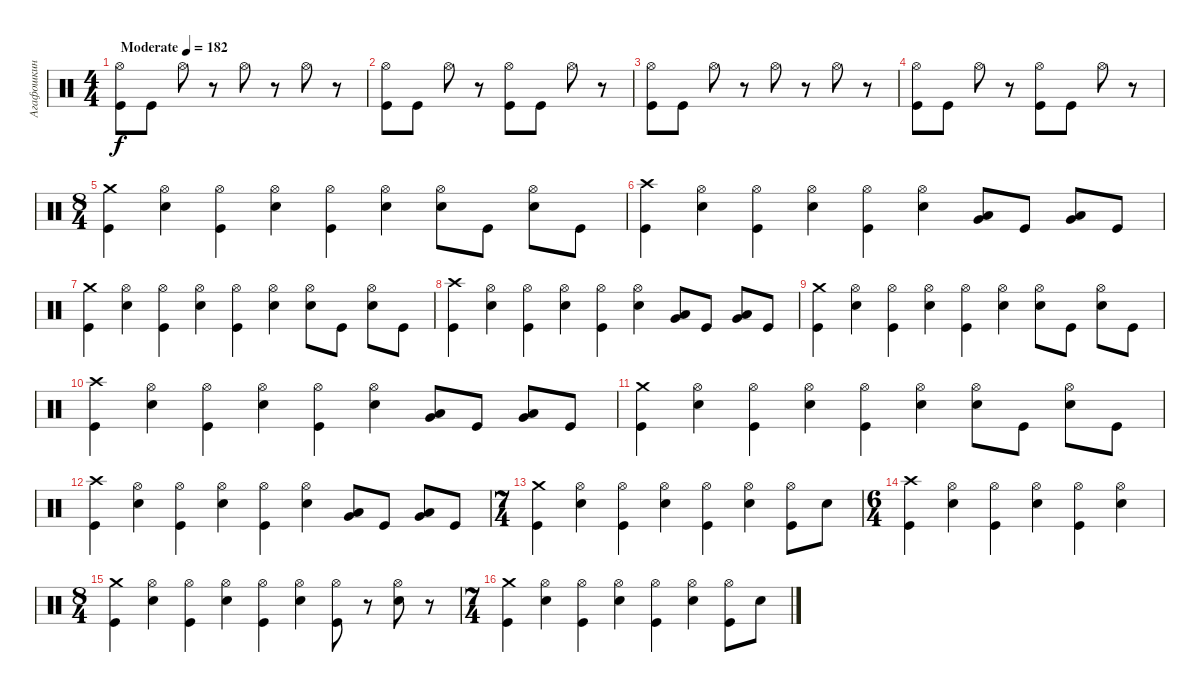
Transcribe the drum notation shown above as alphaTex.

\track ("Агафошкин" "Агафошкин") {instrument percussion}
\staff {score}
\articulation defaults
\ts (4 4)
\tempo (182 "Moderate")
\clef neutral
\ks c
("Hi-Hat (open)" "Kick (hit)").8{dy f} "Kick (hit)".8 "Hi-Hat (open)".8 r.8 "Hi-Hat (open)".8 r.8 "Hi-Hat (open)".8 r.8 |
("Hi-Hat (open)" "Kick (hit)").8 "Kick (hit)".8 "Hi-Hat (open)".8 r.8 ("Hi-Hat (open)" "Kick (hit)").8 "Kick (hit)".8 "Hi-Hat (open)".8 r.8 |
("Hi-Hat (open)" "Kick (hit)").8 "Kick (hit)".8 "Hi-Hat (open)".8 r.8 "Hi-Hat (open)".8 r.8 "Hi-Hat (open)".8 r.8 |
("Hi-Hat (open)" "Kick (hit)").8 "Kick (hit)".8 "Hi-Hat (open)".8 r.8 ("Hi-Hat (open)" "Kick (hit)").8 "Kick (hit)".8 "Hi-Hat (open)".8 r.8 |
\ts (8 4)
("Crash medium (hit)" "Kick (hit)").4 ("Hi-Hat (open)" "Snare (hit) 2").4 ("Hi-Hat (open)" "Kick (hit)").4 ("Hi-Hat (open)" "Snare (hit) 2").4 ("Hi-Hat (open)" "Kick (hit)").4 ("Hi-Hat (open)" "Snare (hit) 2").4 ("Hi-Hat (open)" "Snare (hit) 2").8 "Kick (hit)".8 ("Hi-Hat (open)" "Snare (hit) 2").8 "Kick (hit)".8 |
("Crash high (hit)" "Kick (hit)").4 ("Hi-Hat (open)" "Snare (hit) 2").4 ("Hi-Hat (open)" "Kick (hit)").4 ("Hi-Hat (open)" "Snare (hit) 2").4 ("Hi-Hat (open)" "Kick (hit)").4 ("Hi-Hat (open)" "Snare (hit) 2").4 ("Very Low Tom (hit)" "Low Tom (hit)").8 "Kick (hit)".8 ("Very Low Tom (hit)" "Low Tom (hit)").8 "Kick (hit)".8 |
("Crash medium (hit)" "Kick (hit)").4 ("Hi-Hat (open)" "Snare (hit) 2").4 ("Hi-Hat (open)" "Kick (hit)").4 ("Hi-Hat (open)" "Snare (hit) 2").4 ("Hi-Hat (open)" "Kick (hit)").4 ("Hi-Hat (open)" "Snare (hit) 2").4 ("Hi-Hat (open)" "Snare (hit) 2").8 "Kick (hit)".8 ("Hi-Hat (open)" "Snare (hit) 2").8 "Kick (hit)".8 |
("Crash high (hit)" "Kick (hit)").4 ("Hi-Hat (open)" "Snare (hit) 2").4 ("Hi-Hat (open)" "Kick (hit)").4 ("Hi-Hat (open)" "Snare (hit) 2").4 ("Hi-Hat (open)" "Kick (hit)").4 ("Hi-Hat (open)" "Snare (hit) 2").4 ("Very Low Tom (hit)" "Low Tom (hit)").8 "Kick (hit)".8 ("Very Low Tom (hit)" "Low Tom (hit)").8 "Kick (hit)".8 |
("Crash medium (hit)" "Kick (hit)").4 ("Hi-Hat (open)" "Snare (hit) 2").4 ("Hi-Hat (open)" "Kick (hit)").4 ("Hi-Hat (open)" "Snare (hit) 2").4 ("Hi-Hat (open)" "Kick (hit)").4 ("Hi-Hat (open)" "Snare (hit) 2").4 ("Hi-Hat (open)" "Snare (hit) 2").8 "Kick (hit)".8 ("Hi-Hat (open)" "Snare (hit) 2").8 "Kick (hit)".8 |
("Crash high (hit)" "Kick (hit)").4 ("Hi-Hat (open)" "Snare (hit) 2").4 ("Hi-Hat (open)" "Kick (hit)").4 ("Hi-Hat (open)" "Snare (hit) 2").4 ("Hi-Hat (open)" "Kick (hit)").4 ("Hi-Hat (open)" "Snare (hit) 2").4 ("Very Low Tom (hit)" "Low Tom (hit)").8 "Kick (hit)".8 ("Very Low Tom (hit)" "Low Tom (hit)").8 "Kick (hit)".8 |
("Crash medium (hit)" "Kick (hit)").4 ("Hi-Hat (open)" "Snare (hit) 2").4 ("Hi-Hat (open)" "Kick (hit)").4 ("Hi-Hat (open)" "Snare (hit) 2").4 ("Hi-Hat (open)" "Kick (hit)").4 ("Hi-Hat (open)" "Snare (hit) 2").4 ("Hi-Hat (open)" "Snare (hit) 2").8 "Kick (hit)".8 ("Hi-Hat (open)" "Snare (hit) 2").8 "Kick (hit)".8 |
("Crash high (hit)" "Kick (hit)").4 ("Hi-Hat (open)" "Snare (hit) 2").4 ("Hi-Hat (open)" "Kick (hit)").4 ("Hi-Hat (open)" "Snare (hit) 2").4 ("Hi-Hat (open)" "Kick (hit)").4 ("Hi-Hat (open)" "Snare (hit) 2").4 ("Very Low Tom (hit)" "Low Tom (hit)").8 "Kick (hit)".8 ("Very Low Tom (hit)" "Low Tom (hit)").8 "Kick (hit)".8 |
\ts (7 4)
("Crash medium (hit)" "Kick (hit)").4 ("Hi-Hat (open)" "Snare (hit) 2").4 ("Hi-Hat (open)" "Kick (hit)").4 ("Hi-Hat (open)" "Snare (hit) 2").4 ("Hi-Hat (open)" "Kick (hit)").4 ("Hi-Hat (open)" "Snare (hit) 2").4 ("Hi-Hat (open)" "Kick (hit)").8 "Snare (hit) 2".8 |
\ts (6 4)
("Crash high (hit)" "Kick (hit)").4 ("Hi-Hat (open)" "Snare (hit) 2").4 ("Hi-Hat (open)" "Kick (hit)").4 ("Hi-Hat (open)" "Snare (hit) 2").4 ("Hi-Hat (open)" "Kick (hit)").4 ("Hi-Hat (open)" "Snare (hit) 2").4 |
\ts (8 4)
("Crash medium (hit)" "Kick (hit)").4 ("Hi-Hat (open)" "Snare (hit) 2").4 ("Hi-Hat (open)" "Kick (hit)").4 ("Hi-Hat (open)" "Snare (hit) 2").4 ("Hi-Hat (open)" "Kick (hit)").4 ("Hi-Hat (open)" "Snare (hit) 2").4 ("Hi-Hat (open)" "Kick (hit)").8 r.8 ("Hi-Hat (open)" "Snare (hit) 2").8 r.8 |
\ts (7 4)
("Crash medium (hit)" "Kick (hit)").4 ("Hi-Hat (open)" "Snare (hit) 2").4 ("Hi-Hat (open)" "Kick (hit)").4 ("Hi-Hat (open)" "Snare (hit) 2").4 ("Hi-Hat (open)" "Kick (hit)").4 ("Hi-Hat (open)" "Snare (hit) 2").4 ("Hi-Hat (open)" "Kick (hit)").8 "Snare (hit) 2".8
